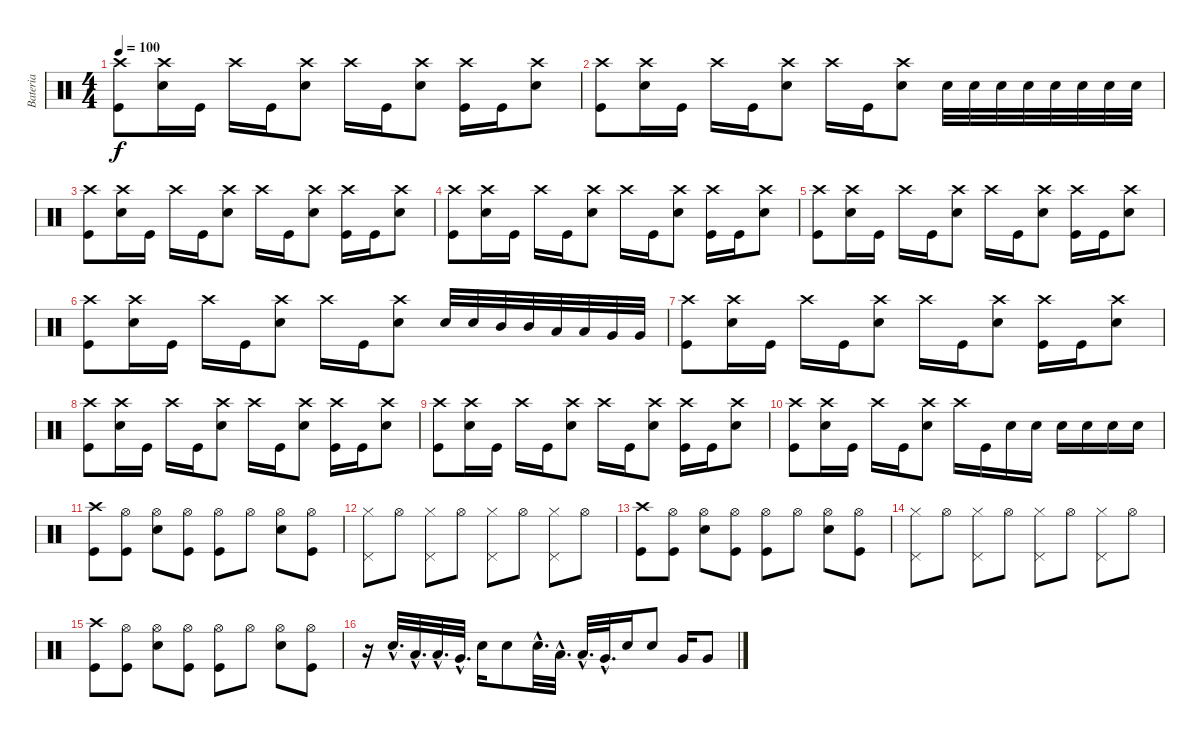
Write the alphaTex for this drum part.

\track ("Bateria" "Bateria") {instrument percussion}
\staff {score}
\articulation defaults
\ts (4 4)
\tempo 100
\clef neutral
\ks c
("Crash high (hit)" "Kick (hit)").8{dy f} ("Crash high (hit)" "Electric Snare (hit)").16 "Kick (hit)".16 "Crash high (hit)".16 "Kick (hit)".16 ("Crash high (hit)" "Electric Snare (hit)").8 "Crash high (hit)".16 "Kick (hit)".16 ("Crash high (hit)" "Electric Snare (hit)").8 ("Crash high (hit)" "Kick (hit)").16 "Kick (hit)".16 ("Crash high (hit)" "Electric Snare (hit)").8 |
("Crash high (hit)" "Kick (hit)").8 ("Crash high (hit)" "Electric Snare (hit)").16 "Kick (hit)".16 "Crash high (hit)".16 "Kick (hit)".16 ("Crash high (hit)" "Electric Snare (hit)").8 "Crash high (hit)".16 "Kick (hit)".16 ("Crash high (hit)" "Electric Snare (hit)").8 "Electric Snare (hit)".32 "Electric Snare (hit)".32 "Electric Snare (hit)".32 "Electric Snare (hit)".32 "Electric Snare (hit)".32 "Electric Snare (hit)".32 "Electric Snare (hit)".32 "Electric Snare (hit)".32 |
("Crash high (hit)" "Kick (hit)").8 ("Crash high (hit)" "Electric Snare (hit)").16 "Kick (hit)".16 "Crash high (hit)".16 "Kick (hit)".16 ("Crash high (hit)" "Electric Snare (hit)").8 "Crash high (hit)".16 "Kick (hit)".16 ("Crash high (hit)" "Electric Snare (hit)").8 ("Crash high (hit)" "Kick (hit)").16 "Kick (hit)".16 ("Crash high (hit)" "Electric Snare (hit)").8 |
("Crash high (hit)" "Kick (hit)").8 ("Crash high (hit)" "Electric Snare (hit)").16 "Kick (hit)".16 "Crash high (hit)".16 "Kick (hit)".16 ("Crash high (hit)" "Electric Snare (hit)").8 "Crash high (hit)".16 "Kick (hit)".16 ("Crash high (hit)" "Electric Snare (hit)").8 ("Crash high (hit)" "Kick (hit)").16 "Kick (hit)".16 ("Crash high (hit)" "Electric Snare (hit)").8 |
("Crash high (hit)" "Kick (hit)").8 ("Crash high (hit)" "Electric Snare (hit)").16 "Kick (hit)".16 "Crash high (hit)".16 "Kick (hit)".16 ("Crash high (hit)" "Electric Snare (hit)").8 "Crash high (hit)".16 "Kick (hit)".16 ("Crash high (hit)" "Electric Snare (hit)").8 ("Crash high (hit)" "Kick (hit)").16 "Kick (hit)".16 ("Crash high (hit)" "Electric Snare (hit)").8 |
("Crash high (hit)" "Kick (hit)").8 ("Crash high (hit)" "Electric Snare (hit)").16 "Kick (hit)".16 "Crash high (hit)".16 "Kick (hit)".16 ("Crash high (hit)" "Electric Snare (hit)").8 "Crash high (hit)".16 "Kick (hit)".16 ("Crash high (hit)" "Electric Snare (hit)").8 "Electric Snare (hit)".32 "Electric Snare (hit)".32 "Mid Tom (hit)".32 "Mid Tom (hit)".32 "Low Tom (hit)".32 "Low Tom (hit)".32 "Very Low Tom (hit)".32 "Very Low Tom (hit)".32 |
("Crash high (hit)" "Kick (hit)").8 ("Crash high (hit)" "Electric Snare (hit)").16 "Kick (hit)".16 "Crash high (hit)".16 "Kick (hit)".16 ("Crash high (hit)" "Electric Snare (hit)").8 "Crash high (hit)".16 "Kick (hit)".16 ("Crash high (hit)" "Electric Snare (hit)").8 ("Crash high (hit)" "Kick (hit)").16 "Kick (hit)".16 ("Crash high (hit)" "Electric Snare (hit)").8 |
("Crash high (hit)" "Kick (hit)").8 ("Crash high (hit)" "Electric Snare (hit)").16 "Kick (hit)".16 "Crash high (hit)".16 "Kick (hit)".16 ("Crash high (hit)" "Electric Snare (hit)").8 "Crash high (hit)".16 "Kick (hit)".16 ("Crash high (hit)" "Electric Snare (hit)").8 ("Crash high (hit)" "Kick (hit)").16 "Kick (hit)".16 ("Crash high (hit)" "Electric Snare (hit)").8 |
("Crash high (hit)" "Kick (hit)").8 ("Crash high (hit)" "Electric Snare (hit)").16 "Kick (hit)".16 "Crash high (hit)".16 "Kick (hit)".16 ("Crash high (hit)" "Electric Snare (hit)").8 "Crash high (hit)".16 "Kick (hit)".16 ("Crash high (hit)" "Electric Snare (hit)").8 ("Crash high (hit)" "Kick (hit)").16 "Kick (hit)".16 ("Crash high (hit)" "Electric Snare (hit)").8 |
("Crash high (hit)" "Kick (hit)").8 ("Crash high (hit)" "Electric Snare (hit)").16 "Kick (hit)".16 "Crash high (hit)".16 "Kick (hit)".16 ("Crash high (hit)" "Electric Snare (hit)").8 "Crash high (hit)".16 "Kick (hit)".16 "Electric Snare (hit)".16 "Electric Snare (hit)".16 "Electric Snare (hit)".16 "Electric Snare (hit)".16 "Electric Snare (hit)".16 "Electric Snare (hit)".16 |
("Crash high (hit)" "Kick (hit)").8 ("Hi-Hat (open)" "Kick (hit)").8 ("Hi-Hat (open)" "Electric Snare (hit)").8 ("Hi-Hat (open)" "Kick (hit)").8 ("Hi-Hat (open)" "Kick (hit)").8 "Hi-Hat (open)".8 ("Hi-Hat (open)" "Electric Snare (hit)").8 ("Hi-Hat (open)" "Kick (hit)").8 |
("Hi-Hat (closed)" "Pedal Hi-Hat (hit)").8 "Hi-Hat (open)".8 ("Hi-Hat (closed)" "Pedal Hi-Hat (hit)").8 "Hi-Hat (open)".8 ("Hi-Hat (closed)" "Pedal Hi-Hat (hit)").8 "Hi-Hat (open)".8 ("Hi-Hat (closed)" "Pedal Hi-Hat (hit)").8 "Hi-Hat (open)".8 |
("Crash high (hit)" "Kick (hit)").8 ("Hi-Hat (open)" "Kick (hit)").8 ("Hi-Hat (open)" "Electric Snare (hit)").8 ("Hi-Hat (open)" "Kick (hit)").8 ("Hi-Hat (open)" "Kick (hit)").8 "Hi-Hat (open)".8 ("Hi-Hat (open)" "Electric Snare (hit)").8 ("Hi-Hat (open)" "Kick (hit)").8 |
("Hi-Hat (closed)" "Pedal Hi-Hat (hit)").8 "Hi-Hat (open)".8 ("Hi-Hat (closed)" "Pedal Hi-Hat (hit)").8 "Hi-Hat (open)".8 ("Hi-Hat (closed)" "Pedal Hi-Hat (hit)").8 "Hi-Hat (open)".8 ("Hi-Hat (closed)" "Pedal Hi-Hat (hit)").8 "Hi-Hat (open)".8 |
("Crash high (hit)" "Kick (hit)").8 ("Hi-Hat (open)" "Kick (hit)").8 ("Hi-Hat (open)" "Electric Snare (hit)").8 ("Hi-Hat (open)" "Kick (hit)").8 ("Hi-Hat (open)" "Kick (hit)").8 "Hi-Hat (open)".8 ("Hi-Hat (open)" "Electric Snare (hit)").8 ("Hi-Hat (open)" "Kick (hit)").8 |
r.16 "Electric Snare (hit)"{hac}.32{d} "Low Tom (hit)"{hac}.32{d} "Low Tom (hit)"{hac}.32{d} "Very Low Tom (hit)"{hac}.32{d} "Electric Snare (hit)".16 "Electric Snare (hit)".8 "Electric Snare (hit)"{hac}.32{d} "Low Tom (hit)"{hac}.32{d} "Low Tom (hit)"{hac}.32{d} "Very Low Tom (hit)"{hac}.32{d} "Electric Snare (hit)".16 "Electric Snare (hit)".8 "Very Low Tom (hit)".16 "Very Low Tom (hit)".8
